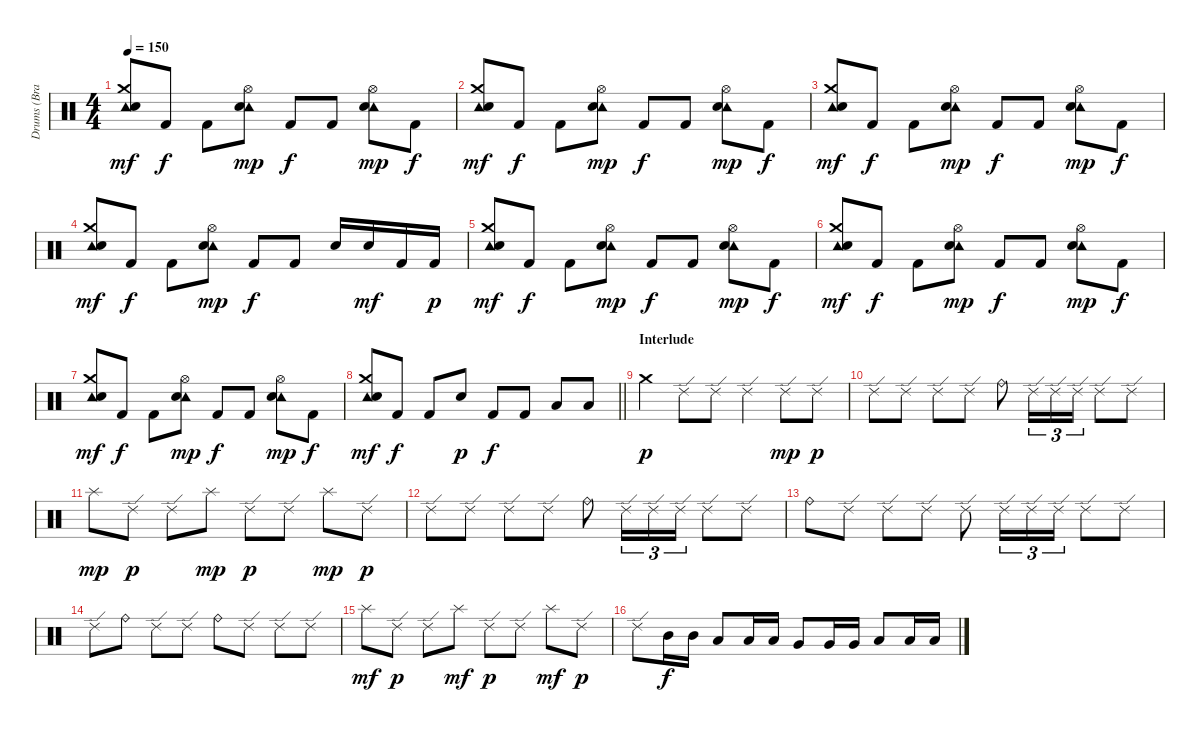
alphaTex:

\track ("Drums (Brandon Saller)" "Drums (Bra") {instrument percussion}
\staff {score}
\articulation defaults
\ts (4 4)
\tempo 150
\clef neutral
\ks c
("Tambourine (hit)" "Crash medium (hit)" "Electric Snare (hit)").8{dy mf} "Kick (hit) 2".8{dy f} "Kick (hit) 2".8 ("Hi-Hat (open)" "Tambourine (hit)" "Electric Snare (hit)").8{dy mp} "Kick (hit) 2".8{dy f} "Kick (hit) 2".8 ("Hi-Hat (open)" "Tambourine (hit)" "Electric Snare (hit)").8{dy mp} "Kick (hit) 2".8{dy f} |
("Tambourine (hit)" "Crash medium (hit)" "Electric Snare (hit)").8{dy mf} "Kick (hit) 2".8{dy f} "Kick (hit) 2".8 ("Hi-Hat (open)" "Tambourine (hit)" "Electric Snare (hit)").8{dy mp} "Kick (hit) 2".8{dy f} "Kick (hit) 2".8 ("Hi-Hat (open)" "Tambourine (hit)" "Electric Snare (hit)").8{dy mp} "Kick (hit) 2".8{dy f} |
("Tambourine (hit)" "Crash medium (hit)" "Electric Snare (hit)").8{dy mf} "Kick (hit) 2".8{dy f} "Kick (hit) 2".8 ("Hi-Hat (open)" "Tambourine (hit)" "Electric Snare (hit)").8{dy mp} "Kick (hit) 2".8{dy f} "Kick (hit) 2".8 ("Hi-Hat (open)" "Tambourine (hit)" "Electric Snare (hit)").8{dy mp} "Kick (hit) 2".8{dy f} |
("Tambourine (hit)" "Crash medium (hit)" "Electric Snare (hit)").8{dy mf} "Kick (hit) 2".8{dy f} "Kick (hit) 2".8 ("Hi-Hat (open)" "Tambourine (hit)" "Electric Snare (hit)").8{dy mp} "Kick (hit) 2".8{dy f} "Kick (hit) 2".8 "Electric Snare (hit)".16 "Electric Snare (hit)".16{dy mf} "Kick (hit) 2".16 "Kick (hit) 2".16{dy p} |
("Tambourine (hit)" "Crash medium (hit)" "Electric Snare (hit)").8{dy mf} "Kick (hit) 2".8{dy f} "Kick (hit) 2".8 ("Hi-Hat (open)" "Tambourine (hit)" "Electric Snare (hit)").8{dy mp} "Kick (hit) 2".8{dy f} "Kick (hit) 2".8 ("Hi-Hat (open)" "Tambourine (hit)" "Electric Snare (hit)").8{dy mp} "Kick (hit) 2".8{dy f} |
("Tambourine (hit)" "Crash medium (hit)" "Electric Snare (hit)").8{dy mf} "Kick (hit) 2".8{dy f} "Kick (hit) 2".8 ("Hi-Hat (open)" "Tambourine (hit)" "Electric Snare (hit)").8{dy mp} "Kick (hit) 2".8{dy f} "Kick (hit) 2".8 ("Hi-Hat (open)" "Tambourine (hit)" "Electric Snare (hit)").8{dy mp} "Kick (hit) 2".8{dy f} |
("Tambourine (hit)" "Crash medium (hit)" "Electric Snare (hit)").8{dy mf} "Kick (hit) 2".8{dy f} "Kick (hit) 2".8 ("Hi-Hat (open)" "Tambourine (hit)" "Electric Snare (hit)").8{dy mp} "Kick (hit) 2".8{dy f} "Kick (hit) 2".8 ("Hi-Hat (open)" "Tambourine (hit)" "Electric Snare (hit)").8{dy mp} "Kick (hit) 2".8{dy f} |
\barLineRight lightlight
("Tambourine (hit)" "Crash medium (hit)" "Electric Snare (hit)").8{dy mf} "Kick (hit) 2".8{dy f} "Kick (hit) 2".8 "Snare (hit) 2".8{dy p} "Kick (hit) 2".8{dy f} "Kick (hit) 2".8 "Low Tom (hit)".8 "Low Tom (hit)".8 |
\section ("" "Interlude")
"Crash medium (hit)".4{dy p} "Ride (edge) 2".8 "Ride (edge) 2".8 "Ride (edge) 2".4 "Ride (edge) 2".8{dy mp} "Ride (edge) 2".8{dy p} |
"Ride (edge) 2".8 "Ride (edge) 2".8 "Ride (edge) 2".8 "Ride (edge) 2".8 "Ride (bell)".8 "Ride (edge) 2".16{tu (3 2)} "Ride (edge) 2".16{tu (3 2)} "Ride (edge) 2".16{tu (3 2)} "Ride (edge) 2".8 "Ride (edge) 2".8 |
"Splash (hit)".8{dy mp} "Ride (edge) 2".8{dy p} "Ride (edge) 2".8 "Splash (hit)".8{dy mp} "Ride (edge) 2".8{dy p} "Ride (edge) 2".8 "Splash (hit)".8{dy mp} "Ride (edge) 2".8{dy p} |
"Ride (edge) 2".8 "Ride (edge) 2".8 "Ride (edge) 2".8 "Ride (edge) 2".8 "Ride (bell)".8 "Ride (edge) 2".16{tu (3 2)} "Ride (edge) 2".16{tu (3 2)} "Ride (edge) 2".16{tu (3 2)} "Ride (edge) 2".8 "Ride (edge) 2".8 |
"Ride (bell)".8 "Ride (edge) 2".8 "Ride (edge) 2".8 "Ride (edge) 2".8 "Ride (edge) 2".8 "Ride (edge) 2".16{tu (3 2)} "Ride (edge) 2".16{tu (3 2)} "Ride (edge) 2".16{tu (3 2)} "Ride (edge) 2".8 "Ride (edge) 2".8 |
"Ride (edge) 2".8 "Ride (bell)".8 "Ride (edge) 2".8 "Ride (edge) 2".8 "Ride (bell)".8 "Ride (edge) 2".8 "Ride (edge) 2".8 "Ride (edge) 2".8 |
"Splash (hit)".8{dy mf} "Ride (edge) 2".8{dy p} "Ride (edge) 2".8 "Splash (hit)".8{dy mf} "Ride (edge) 2".8{dy p} "Ride (edge) 2".8 "Splash (hit)".8{dy mf} "Ride (edge) 2".8{dy p} |
"Ride (edge) 2".8 "Mid Tom (hit)".16{dy f} "Mid Tom (hit)".16 "Low Tom (hit)".8 "Low Tom (hit)".16 "Low Tom (hit)".16 "Very Low Tom (hit)".8 "Very Low Tom (hit)".16 "Very Low Tom (hit)".16 "Low Floor Tom (hit)".8 "Low Floor Tom (hit)".16 "Low Floor Tom (hit)".16
